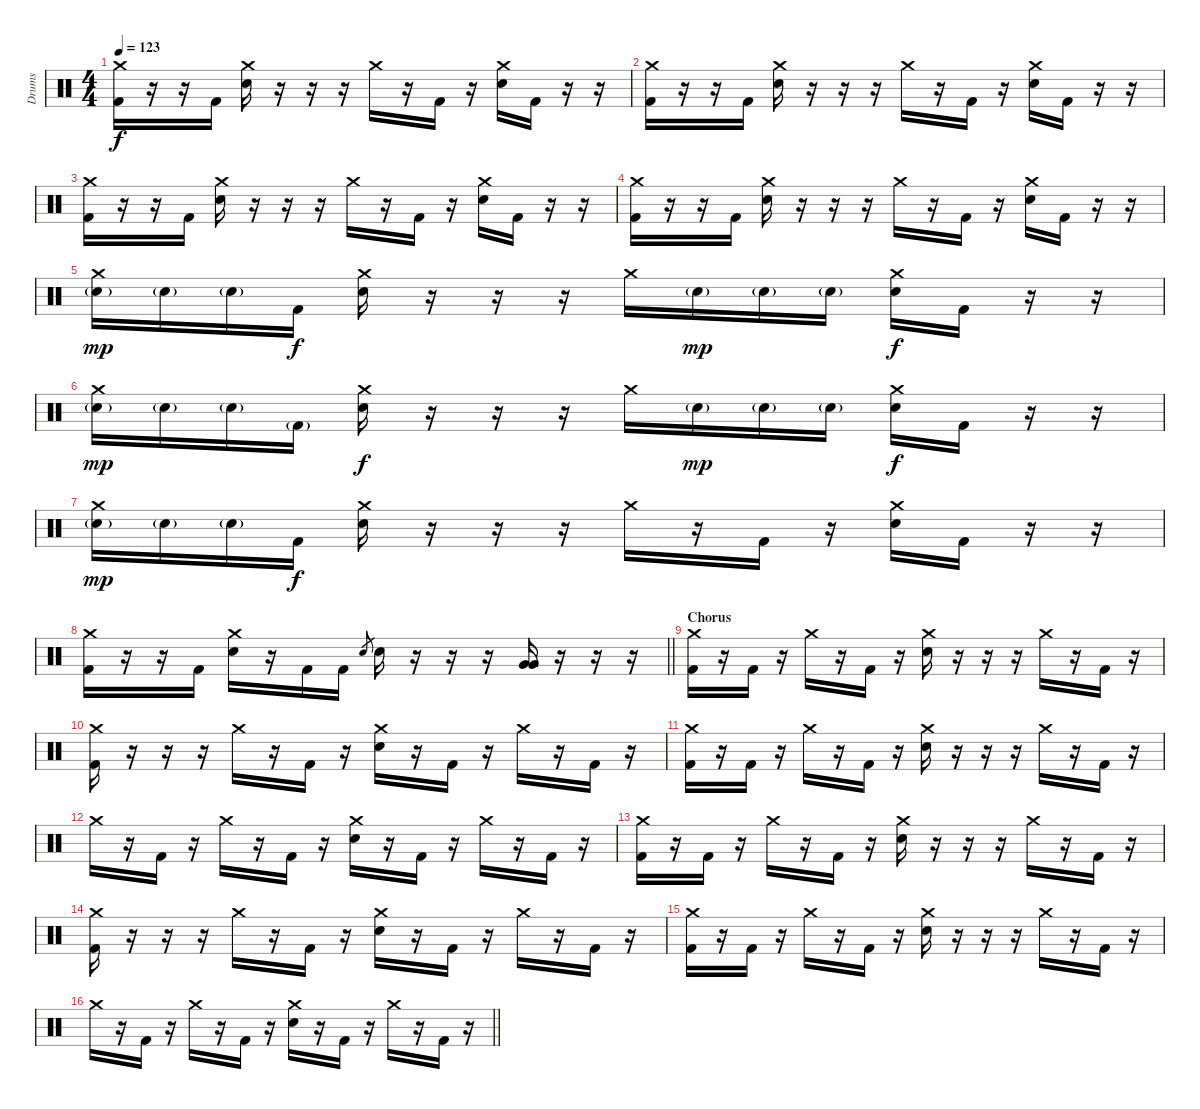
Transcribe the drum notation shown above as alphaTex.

\track ("Drums" "Drums") {instrument percussion}
\staff {score}
\articulation defaults
\ts (4 4)
\tempo 123
\clef neutral
\ks c
("Crash medium (hit)" "Kick (hit) 2").16{dy f} r.16 r.16 "Kick (hit) 2".16 ("Crash medium (hit)" "Electric Snare (hit)").16 r.16 r.16 r.16 "Crash medium (hit)".16 r.16 "Kick (hit) 2".16 r.16 ("Crash medium (hit)" "Electric Snare (hit)").16 "Kick (hit) 2".16 r.16 r.16 |
("Crash medium (hit)" "Kick (hit) 2").16 r.16 r.16 "Kick (hit) 2".16 ("Crash medium (hit)" "Electric Snare (hit)").16 r.16 r.16 r.16 "Crash medium (hit)".16 r.16 "Kick (hit) 2".16 r.16 ("Crash medium (hit)" "Electric Snare (hit)").16 "Kick (hit) 2".16 r.16 r.16 |
("Crash medium (hit)" "Kick (hit) 2").16 r.16 r.16 "Kick (hit) 2".16 ("Crash medium (hit)" "Electric Snare (hit)").16 r.16 r.16 r.16 "Crash medium (hit)".16 r.16 "Kick (hit) 2".16 r.16 ("Crash medium (hit)" "Electric Snare (hit)").16 "Kick (hit) 2".16 r.16 r.16 |
("Crash medium (hit)" "Kick (hit) 2").16 r.16 r.16 "Kick (hit) 2".16 ("Crash medium (hit)" "Electric Snare (hit)").16 r.16 r.16 r.16 "Crash medium (hit)".16 r.16 "Kick (hit) 2".16 r.16 ("Crash medium (hit)" "Electric Snare (hit)").16 "Kick (hit) 2".16 r.16 r.16 |
("Crash medium (hit)" "Electric Snare (hit)"{g}).16{dy mp} "Electric Snare (hit)"{g}.16 "Electric Snare (hit)"{g}.16 "Kick (hit) 2".16{dy f} ("Crash medium (hit)" "Electric Snare (hit)").16 r.16 r.16 r.16 "Crash medium (hit)".16 "Electric Snare (hit)"{g}.16{dy mp} "Electric Snare (hit)"{g}.16 "Electric Snare (hit)"{g}.16 ("Crash medium (hit)" "Electric Snare (hit)").16{dy f} "Kick (hit) 2".16 r.16 r.16 |
("Crash medium (hit)" "Electric Snare (hit)"{g}).16{dy mp} "Electric Snare (hit)"{g}.16 "Electric Snare (hit)"{g}.16 "Kick (hit) 2"{g}.16 ("Crash medium (hit)" "Electric Snare (hit)").16{dy f} r.16 r.16 r.16 "Crash medium (hit)".16 "Electric Snare (hit)"{g}.16{dy mp} "Electric Snare (hit)"{g}.16 "Electric Snare (hit)"{g}.16 ("Crash medium (hit)" "Electric Snare (hit)").16{dy f} "Kick (hit) 2".16 r.16 r.16 |
("Crash medium (hit)" "Electric Snare (hit)"{g}).16{dy mp} "Electric Snare (hit)"{g}.16 "Electric Snare (hit)"{g}.16 "Kick (hit) 2".16{dy f} ("Crash medium (hit)" "Electric Snare (hit)").16 r.16 r.16 r.16 "Crash medium (hit)".16 r.16 "Kick (hit) 2".16 r.16 ("Crash medium (hit)" "Electric Snare (hit)").16 "Kick (hit) 2".16 r.16 r.16 |
\barLineRight lightlight
("Crash medium (hit)" "Kick (hit) 2").16 r.16 r.16 "Kick (hit) 2".16 ("Crash medium (hit)" "Electric Snare (hit)").16 r.16 "Kick (hit) 2".16 "Kick (hit) 2".16 "Electric Snare (hit)".8{gr} "Electric Snare (hit)".16 r.16 r.16 r.16 ("Very Low Tom (hit)" "Very Low Tom (hit)").16 r.16 r.16 r.16 |
\section ("" "Chorus")
("Crash medium (hit)" "Kick (hit) 2").16 r.16 "Kick (hit) 2".16 r.16 "Crash medium (hit)".16 r.16 "Kick (hit) 2".16 r.16 ("Crash medium (hit)" "Electric Snare (hit)").16 r.16 r.16 r.16 "Crash medium (hit)".16 r.16 "Kick (hit) 2".16 r.16 |
("Crash medium (hit)" "Kick (hit) 2").16 r.16 r.16 r.16 "Crash medium (hit)".16 r.16 "Kick (hit) 2".16 r.16 ("Crash medium (hit)" "Electric Snare (hit)").16 r.16 "Kick (hit) 2".16 r.16 "Crash medium (hit)".16 r.16 "Kick (hit) 2".16 r.16 |
("Crash medium (hit)" "Kick (hit) 2").16 r.16 "Kick (hit) 2".16 r.16 "Crash medium (hit)".16 r.16 "Kick (hit) 2".16 r.16 ("Crash medium (hit)" "Electric Snare (hit)").16 r.16 r.16 r.16 "Crash medium (hit)".16 r.16 "Kick (hit) 2".16 r.16 |
"Crash medium (hit)".16 r.16 "Kick (hit) 2".16 r.16 "Crash medium (hit)".16 r.16 "Kick (hit) 2".16 r.16 ("Crash medium (hit)" "Electric Snare (hit)").16 r.16 "Kick (hit) 2".16 r.16 "Crash medium (hit)".16 r.16 "Kick (hit) 2".16 r.16 |
("Crash medium (hit)" "Kick (hit) 2").16 r.16 "Kick (hit) 2".16 r.16 "Crash medium (hit)".16 r.16 "Kick (hit) 2".16 r.16 ("Crash medium (hit)" "Electric Snare (hit)").16 r.16 r.16 r.16 "Crash medium (hit)".16 r.16 "Kick (hit) 2".16 r.16 |
("Crash medium (hit)" "Kick (hit) 2").16 r.16 r.16 r.16 "Crash medium (hit)".16 r.16 "Kick (hit) 2".16 r.16 ("Crash medium (hit)" "Electric Snare (hit)").16 r.16 "Kick (hit) 2".16 r.16 "Crash medium (hit)".16 r.16 "Kick (hit) 2".16 r.16 |
("Crash medium (hit)" "Kick (hit) 2").16 r.16 "Kick (hit) 2".16 r.16 "Crash medium (hit)".16 r.16 "Kick (hit) 2".16 r.16 ("Crash medium (hit)" "Electric Snare (hit)").16 r.16 r.16 r.16 "Crash medium (hit)".16 r.16 "Kick (hit) 2".16 r.16 |
\barLineRight lightlight "Crash medium (hit)".16
r.16 "Kick (hit) 2".16 r.16 "Crash medium (hit)".16 r.16 "Kick (hit) 2".16 r.16 ("Crash medium (hit)" "Electric Snare (hit)").16 r.16 "Kick (hit) 2".16 r.16 "Crash medium (hit)".16 r.16 "Kick (hit) 2".16 r.16
